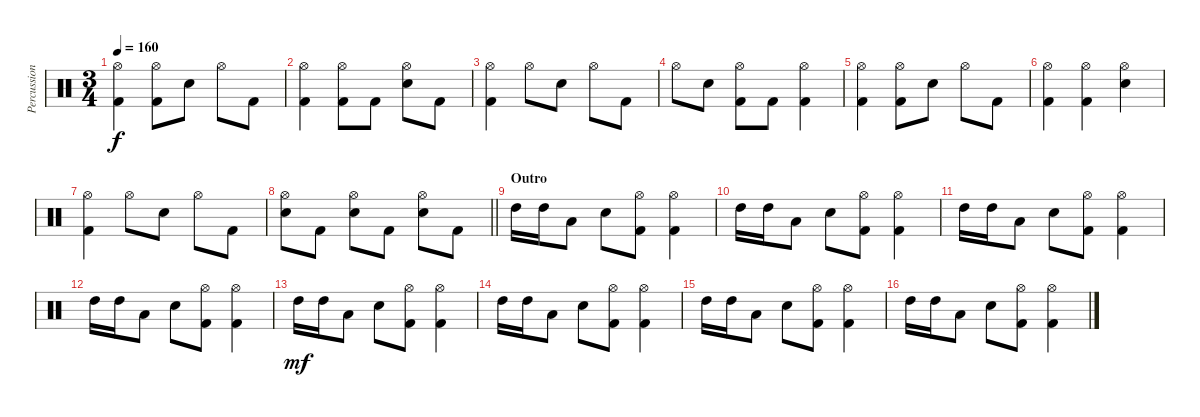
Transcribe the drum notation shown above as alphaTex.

\track ("Percussion" "Percussion") {instrument percussion}
\staff {score}
\articulation defaults
\ts (3 4)
\tempo 160
\clef neutral
\ks c
("Hi-Hat (open)" "Kick (hit) 2").4{dy f} ("Hi-Hat (open)" "Kick (hit) 2").8 "Snare (hit) 2".8 "Hi-Hat (open)".8 "Kick (hit) 2".8 |
("Hi-Hat (open)" "Kick (hit) 2").4 ("Hi-Hat (open)" "Kick (hit) 2").8 "Kick (hit) 2".8 ("Hi-Hat (open)" "Snare (hit) 2").8 "Kick (hit) 2".8 |
("Hi-Hat (open)" "Kick (hit) 2").4 "Hi-Hat (open)".8 "Snare (hit) 2".8 "Hi-Hat (open)".8 "Kick (hit) 2".8 |
"Hi-Hat (open)".8 "Snare (hit) 2".8 ("Hi-Hat (open)" "Kick (hit) 2").8 "Kick (hit) 2".8 ("Hi-Hat (open)" "Kick (hit) 2").4 |
("Hi-Hat (open)" "Kick (hit) 2").4 ("Hi-Hat (open)" "Kick (hit) 2").8 "Snare (hit) 2".8 "Hi-Hat (open)".8 "Kick (hit) 2".8 |
("Hi-Hat (open)" "Kick (hit) 2").4 ("Hi-Hat (open)" "Kick (hit) 2").4 ("Hi-Hat (open)" "Snare (hit) 2").4 |
("Hi-Hat (open)" "Kick (hit) 2").4 "Hi-Hat (open)".8 "Snare (hit) 2".8 "Hi-Hat (open)".8 "Kick (hit) 2".8 |
\barLineRight lightlight
("Hi-Hat (open)" "Snare (hit) 2").8 "Kick (hit) 2".8 ("Hi-Hat (open)" "Snare (hit) 2").8 "Kick (hit) 2".8 ("Hi-Hat (open)" "Snare (hit) 2").8 "Kick (hit) 2".8 |
\section ("" "Outro")
"High Tom (hit)".16 "High Tom (hit)".16 "Low Tom (hit)".8 "Snare (hit) 2".8 ("Hi-Hat (open)" "Kick (hit) 2").8 ("Hi-Hat (open)" "Kick (hit) 2").4 |
"High Tom (hit)".16 "High Tom (hit)".16 "Low Tom (hit)".8 "Snare (hit) 2".8 ("Hi-Hat (open)" "Kick (hit) 2").8 ("Hi-Hat (open)" "Kick (hit) 2").4 |
"High Tom (hit)".16 "High Tom (hit)".16 "Low Tom (hit)".8 "Snare (hit) 2".8 ("Hi-Hat (open)" "Kick (hit) 2").8 ("Hi-Hat (open)" "Kick (hit) 2").4 |
"High Tom (hit)".16 "High Tom (hit)".16 "Low Tom (hit)".8 "Snare (hit) 2".8 ("Hi-Hat (open)" "Kick (hit) 2").8 ("Hi-Hat (open)" "Kick (hit) 2").4 |
"High Tom (hit)".16{dy mf} "High Tom (hit)".16 "Low Tom (hit)".8 "Snare (hit) 2".8 ("Hi-Hat (open)" "Kick (hit) 2").8 ("Hi-Hat (open)" "Kick (hit) 2").4 |
"High Tom (hit)".16 "High Tom (hit)".16 "Low Tom (hit)".8 "Snare (hit) 2".8 ("Hi-Hat (open)" "Kick (hit) 2").8 ("Hi-Hat (open)" "Kick (hit) 2").4 |
"High Tom (hit)".16 "High Tom (hit)".16 "Low Tom (hit)".8 "Snare (hit) 2".8 ("Hi-Hat (open)" "Kick (hit) 2").8 ("Hi-Hat (open)" "Kick (hit) 2").4 |
"High Tom (hit)".16 "High Tom (hit)".16 "Low Tom (hit)".8 "Snare (hit) 2".8 ("Hi-Hat (open)" "Kick (hit) 2").8 ("Hi-Hat (open)" "Kick (hit) 2").4
